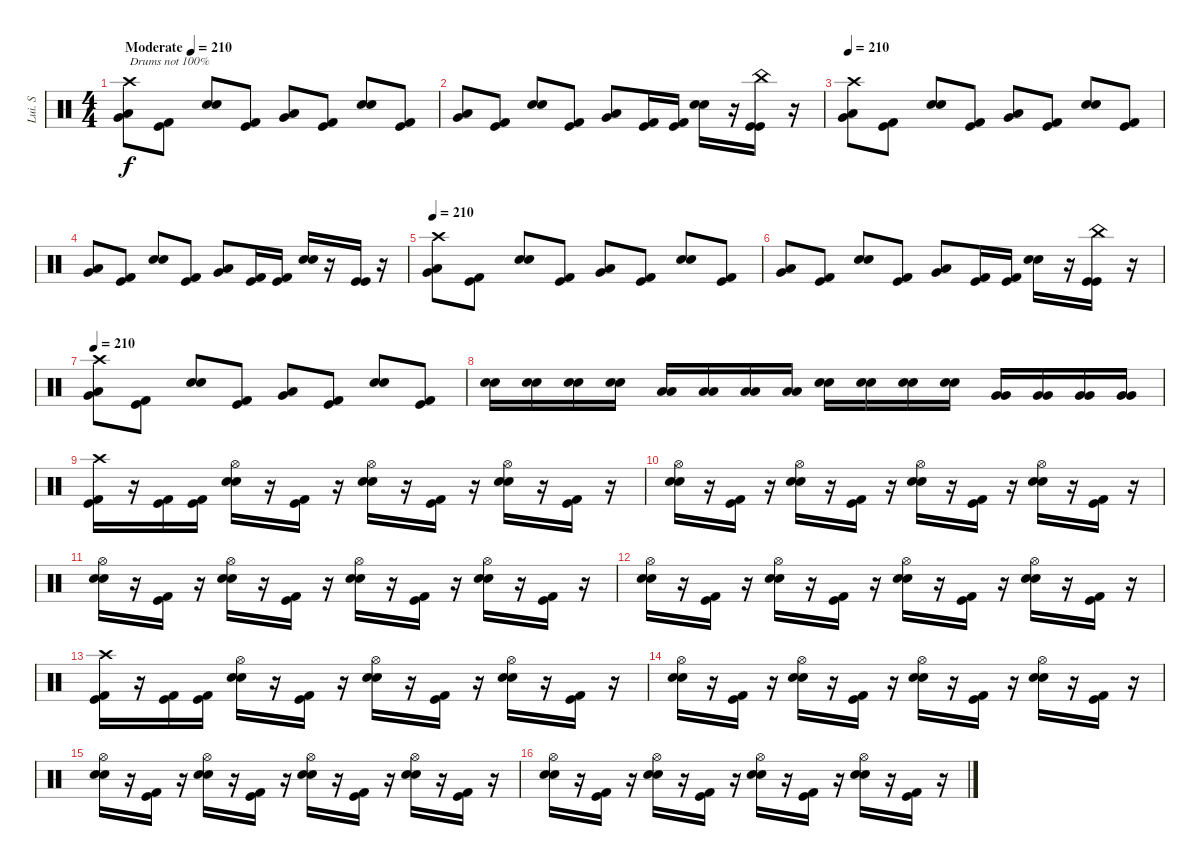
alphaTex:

\track ("Lui. S" "Lui. S") {instrument percussion}
\staff {score}
\articulation defaults
\ts (4 4)
\tempo (210 "Moderate")
\clef neutral
\ks c
("Crash high (hit)" "Low Tom (hit)" "Very Low Tom (hit)").8{txt "Drums not 100%" dy f} ("Kick (hit) 2" "Kick (hit)").8 ("Snare (hit) 2" "Electric Snare (hit)").8 ("Kick (hit) 2" "Kick (hit)").8 ("Low Tom (hit)" "Very Low Tom (hit)").8 ("Kick (hit) 2" "Kick (hit)").8 ("Snare (hit) 2" "Electric Snare (hit)").8 ("Kick (hit) 2" "Kick (hit)").8 |
("Low Tom (hit)" "Very Low Tom (hit)").8 ("Kick (hit) 2" "Kick (hit)").8 ("Snare (hit) 2" "Electric Snare (hit)").8 ("Kick (hit) 2" "Kick (hit)").8 ("Low Tom (hit)" "Very Low Tom (hit)").8 ("Kick (hit) 2" "Kick (hit)").16 ("Kick (hit) 2" "Kick (hit)").16 ("Electric Snare (hit)" "Snare (hit) 2").16 r.16 ("China (hit)" "Kick (hit)" "Kick (hit)").16 r.16 |
\tempo 210
("Crash high (hit)" "Low Tom (hit)" "Very Low Tom (hit)").8 ("Kick (hit) 2" "Kick (hit)").8 ("Snare (hit) 2" "Electric Snare (hit)").8 ("Kick (hit) 2" "Kick (hit)").8 ("Low Tom (hit)" "Very Low Tom (hit)").8 ("Kick (hit) 2" "Kick (hit)").8 ("Snare (hit) 2" "Electric Snare (hit)").8 ("Kick (hit) 2" "Kick (hit)").8 |
("Low Tom (hit)" "Very Low Tom (hit)").8 ("Kick (hit) 2" "Kick (hit)").8 ("Snare (hit) 2" "Electric Snare (hit)").8 ("Kick (hit) 2" "Kick (hit)").8 ("Low Tom (hit)" "Very Low Tom (hit)").8 ("Kick (hit) 2" "Kick (hit)").16 ("Kick (hit) 2" "Kick (hit)").16 ("Electric Snare (hit)" "Snare (hit) 2").16 r.16 ("Kick (hit)" "Kick (hit)").16 r.16 |
\tempo 210
("Crash high (hit)" "Low Tom (hit)" "Very Low Tom (hit)").8 ("Kick (hit) 2" "Kick (hit)").8 ("Snare (hit) 2" "Electric Snare (hit)").8 ("Kick (hit) 2" "Kick (hit)").8 ("Low Tom (hit)" "Very Low Tom (hit)").8 ("Kick (hit) 2" "Kick (hit)").8 ("Snare (hit) 2" "Electric Snare (hit)").8 ("Kick (hit) 2" "Kick (hit)").8 |
("Low Tom (hit)" "Very Low Tom (hit)").8 ("Kick (hit) 2" "Kick (hit)").8 ("Snare (hit) 2" "Electric Snare (hit)").8 ("Kick (hit) 2" "Kick (hit)").8 ("Low Tom (hit)" "Very Low Tom (hit)").8 ("Kick (hit) 2" "Kick (hit)").16 ("Kick (hit) 2" "Kick (hit)").16 ("Electric Snare (hit)" "Snare (hit) 2").16 r.16 ("China (hit)" "Kick (hit)" "Kick (hit)").16 r.16 |
\tempo 210
("Crash high (hit)" "Low Tom (hit)" "Very Low Tom (hit)").8 ("Kick (hit) 2" "Kick (hit)").8 ("Snare (hit) 2" "Electric Snare (hit)").8 ("Kick (hit) 2" "Kick (hit)").8 ("Low Tom (hit)" "Very Low Tom (hit)").8 ("Kick (hit) 2" "Kick (hit)").8 ("Snare (hit) 2" "Electric Snare (hit)").8 ("Kick (hit) 2" "Kick (hit)").8 |
("Electric Snare (hit)" "Snare (hit) 2").16 ("Electric Snare (hit)" "Snare (hit) 2").16 ("Electric Snare (hit)" "Snare (hit) 2").16 ("Electric Snare (hit)" "Snare (hit) 2").16 ("Low Tom (hit)" "Low Tom (hit)").16 ("Low Tom (hit)" "Low Tom (hit)").16 ("Low Tom (hit)" "Low Tom (hit)").16 ("Low Tom (hit)" "Low Tom (hit)").16 ("Electric Snare (hit)" "Snare (hit) 2").16 ("Electric Snare (hit)" "Snare (hit) 2").16 ("Electric Snare (hit)" "Snare (hit) 2").16 ("Electric Snare (hit)" "Snare (hit) 2").16 ("Very Low Tom (hit)" "Very Low Tom (hit)").16 ("Very Low Tom (hit)" "Very Low Tom (hit)").16 ("Very Low Tom (hit)" "Very Low Tom (hit)").16 ("Very Low Tom (hit)" "Very Low Tom (hit)").16 |
("Crash high (hit)" "Kick (hit)" "Kick (hit) 2").16 r.16 ("Kick (hit) 2" "Kick (hit)").16 ("Kick (hit) 2" "Kick (hit)").16 ("Hi-Hat (open)" "Electric Snare (hit)" "Snare (hit) 2").16 r.16 ("Kick (hit) 2" "Kick (hit)").16 r.16 ("Hi-Hat (open)" "Electric Snare (hit)" "Snare (hit) 2").16 r.16 ("Kick (hit) 2" "Kick (hit)").16 r.16 ("Hi-Hat (open)" "Electric Snare (hit)" "Snare (hit) 2").16 r.16 ("Kick (hit) 2" "Kick (hit)").16 r.16 |
("Hi-Hat (open)" "Electric Snare (hit)" "Snare (hit) 2").16 r.16 ("Kick (hit) 2" "Kick (hit)").16 r.16 ("Hi-Hat (open)" "Electric Snare (hit)" "Snare (hit) 2").16 r.16 ("Kick (hit) 2" "Kick (hit)").16 r.16 ("Hi-Hat (open)" "Electric Snare (hit)" "Snare (hit) 2").16 r.16 ("Kick (hit) 2" "Kick (hit)").16 r.16 ("Hi-Hat (open)" "Snare (hit) 2" "Electric Snare (hit)").16 r.16 ("Kick (hit) 2" "Kick (hit)").16 r.16 |
("Hi-Hat (open)" "Electric Snare (hit)" "Snare (hit) 2").16 r.16 ("Kick (hit) 2" "Kick (hit)").16 r.16 ("Hi-Hat (open)" "Electric Snare (hit)" "Snare (hit) 2").16 r.16 ("Kick (hit) 2" "Kick (hit)").16 r.16 ("Hi-Hat (open)" "Electric Snare (hit)" "Snare (hit) 2").16 r.16 ("Kick (hit) 2" "Kick (hit)").16 r.16 ("Hi-Hat (open)" "Snare (hit) 2" "Electric Snare (hit)").16 r.16 ("Kick (hit) 2" "Kick (hit)").16 r.16 |
("Hi-Hat (open)" "Electric Snare (hit)" "Snare (hit) 2").16 r.16 ("Kick (hit) 2" "Kick (hit)").16 r.16 ("Hi-Hat (open)" "Electric Snare (hit)" "Snare (hit) 2").16 r.16 ("Kick (hit) 2" "Kick (hit)").16 r.16 ("Hi-Hat (open)" "Electric Snare (hit)" "Snare (hit) 2").16 r.16 ("Kick (hit) 2" "Kick (hit)").16 r.16 ("Hi-Hat (open)" "Snare (hit) 2" "Electric Snare (hit)").16 r.16 ("Kick (hit) 2" "Kick (hit)").16 r.16 |
("Crash high (hit)" "Kick (hit)" "Kick (hit) 2").16 r.16 ("Kick (hit) 2" "Kick (hit)").16 ("Kick (hit) 2" "Kick (hit)").16 ("Hi-Hat (open)" "Electric Snare (hit)" "Snare (hit) 2").16 r.16 ("Kick (hit) 2" "Kick (hit)").16 r.16 ("Hi-Hat (open)" "Electric Snare (hit)" "Snare (hit) 2").16 r.16 ("Kick (hit) 2" "Kick (hit)").16 r.16 ("Hi-Hat (open)" "Electric Snare (hit)" "Snare (hit) 2").16 r.16 ("Kick (hit) 2" "Kick (hit)").16 r.16 |
("Hi-Hat (open)" "Electric Snare (hit)" "Snare (hit) 2").16 r.16 ("Kick (hit) 2" "Kick (hit)").16 r.16 ("Hi-Hat (open)" "Electric Snare (hit)" "Snare (hit) 2").16 r.16 ("Kick (hit) 2" "Kick (hit)").16 r.16 ("Hi-Hat (open)" "Electric Snare (hit)" "Snare (hit) 2").16 r.16 ("Kick (hit) 2" "Kick (hit)").16 r.16 ("Hi-Hat (open)" "Snare (hit) 2" "Electric Snare (hit)").16 r.16 ("Kick (hit) 2" "Kick (hit)").16 r.16 |
("Hi-Hat (open)" "Electric Snare (hit)" "Snare (hit) 2").16 r.16 ("Kick (hit) 2" "Kick (hit)").16 r.16 ("Hi-Hat (open)" "Electric Snare (hit)" "Snare (hit) 2").16 r.16 ("Kick (hit) 2" "Kick (hit)").16 r.16 ("Hi-Hat (open)" "Electric Snare (hit)" "Snare (hit) 2").16 r.16 ("Kick (hit) 2" "Kick (hit)").16 r.16 ("Hi-Hat (open)" "Snare (hit) 2" "Electric Snare (hit)").16 r.16 ("Kick (hit) 2" "Kick (hit)").16 r.16 |
("Hi-Hat (open)" "Electric Snare (hit)" "Snare (hit) 2").16 r.16 ("Kick (hit) 2" "Kick (hit)").16 r.16 ("Hi-Hat (open)" "Electric Snare (hit)" "Snare (hit) 2").16 r.16 ("Kick (hit) 2" "Kick (hit)").16 r.16 ("Hi-Hat (open)" "Electric Snare (hit)" "Snare (hit) 2").16 r.16 ("Kick (hit) 2" "Kick (hit)").16 r.16 ("Hi-Hat (open)" "Snare (hit) 2" "Electric Snare (hit)").16 r.16 ("Kick (hit) 2" "Kick (hit)").16 r.16
